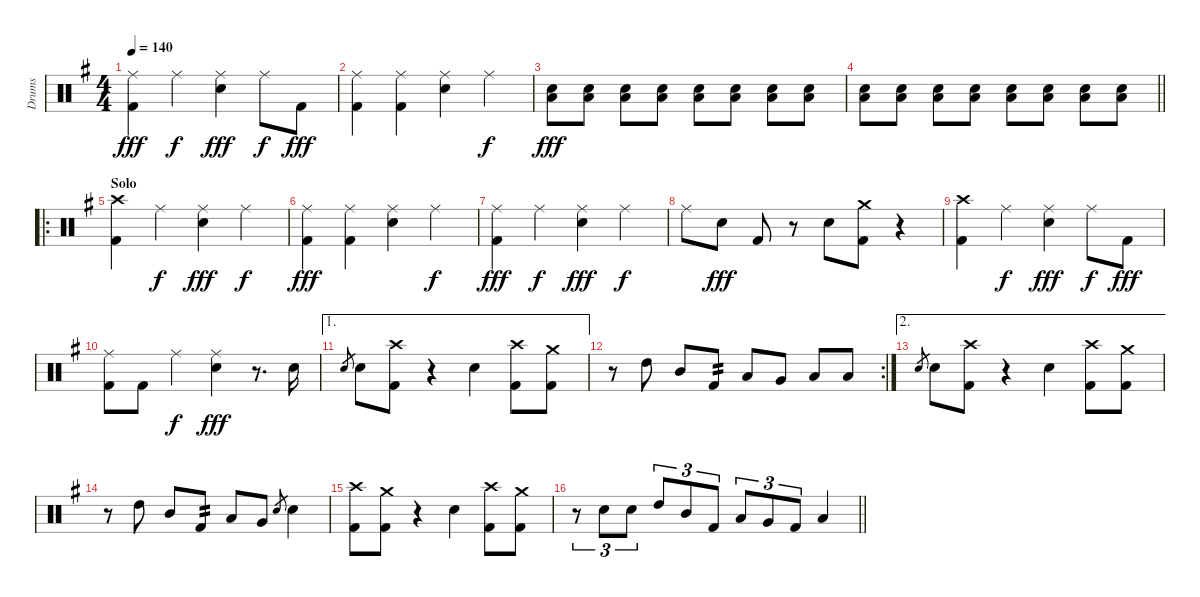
\track ("Drums" "Drums") {instrument percussion}
\staff {score}
\articulation defaults
\ts (4 4)
\tempo 140
\clef neutral
\ks eminor
("Ride (middle)" "Kick (hit) 2").4{dy fff} "Ride (middle)".4{dy f} ("Electric Snare (hit)" "Ride (middle)").4{dy fff} "Ride (middle)".8{dy f} "Kick (hit) 2".8{dy fff} |
("Ride (middle)" "Kick (hit) 2").4 ("Ride (middle)" "Kick (hit) 2").4 ("Electric Snare (hit)" "Ride (middle)").4 "Ride (middle)".4{dy f} |
("Electric Snare (hit)" "Low Floor Tom (hit)").8{dy fff volume 4} ("Electric Snare (hit)" "Low Floor Tom (hit)").8{volume 16} ("Electric Snare (hit)" "Low Floor Tom (hit)").8 ("Electric Snare (hit)" "Low Floor Tom (hit)").8 ("Electric Snare (hit)" "Low Floor Tom (hit)").8 ("Electric Snare (hit)" "Low Floor Tom (hit)").8 ("Electric Snare (hit)" "Low Floor Tom (hit)").8 ("Electric Snare (hit)" "Low Floor Tom (hit)").8 |
\barLineRight lightlight
("Electric Snare (hit)" "Low Floor Tom (hit)").8 ("Electric Snare (hit)" "Low Floor Tom (hit)").8 ("Electric Snare (hit)" "Low Floor Tom (hit)").8 ("Electric Snare (hit)" "Low Floor Tom (hit)").8 ("Electric Snare (hit)" "Low Floor Tom (hit)").8 ("Electric Snare (hit)" "Low Floor Tom (hit)").8 ("Electric Snare (hit)" "Low Floor Tom (hit)").8 ("Electric Snare (hit)" "Low Floor Tom (hit)").8 |
\ro
\section ("" "Solo")
("Crash high (hit)" "Kick (hit) 2").4 "Ride (middle)".4{dy f} ("Electric Snare (hit)" "Ride (middle)").4{dy fff} "Ride (middle)".4{dy f} |
("Ride (middle)" "Kick (hit) 2").4{dy fff} ("Ride (middle)" "Kick (hit) 2").4 ("Electric Snare (hit)" "Ride (middle)").4 "Ride (middle)".4{dy f} |
("Ride (middle)" "Kick (hit) 2").4{dy fff} "Ride (middle)".4{dy f} ("Electric Snare (hit)" "Ride (middle)").4{dy fff} "Ride (middle)".4{dy f} |
"Ride (middle)".8 "Electric Snare (hit)".8{dy fff} "Kick (hit) 2".8 r.8 "Electric Snare (hit)".8 ("Crash medium (hit)" "Kick (hit) 2").8 r.4 |
("Crash high (hit)" "Kick (hit) 2").4 "Ride (middle)".4{dy f} ("Electric Snare (hit)" "Ride (middle)").4{dy fff} "Ride (middle)".8{dy f} "Kick (hit) 2".8{dy fff} |
("Ride (middle)" "Kick (hit) 2").8 "Kick (hit) 2".8 "Ride (middle)".4{dy f} ("Electric Snare (hit)" "Ride (middle)").4{dy fff} r.8{d} "Electric Snare (hit)".16 |
\ae 1 "Electric Snare (hit)".8{gr} "Electric Snare (hit)".8
("Crash high (hit)" "Kick (hit) 2").8 r.4 "Electric Snare (hit)".4 ("Crash high (hit)" "Kick (hit) 2").8 ("Crash medium (hit)" "Kick (hit) 2").8 |
\rc 2
r.8 "High Tom (hit)".8 "Mid Tom (hit)".8 "Kick (hit) 2".8{tp 2} "Low Tom (hit)".8 "Very Low Tom (hit)".8 "Low Floor Tom (hit)".8 "Low Floor Tom (hit)".8 |
\ae 2 "Electric Snare (hit)".8{gr} "Electric Snare (hit)".8
("Crash high (hit)" "Kick (hit) 2").8 r.4 "Electric Snare (hit)".4 ("Crash high (hit)" "Kick (hit) 2").8 ("Crash medium (hit)" "Kick (hit) 2").8 |
r.8 "High Tom (hit)".8 "Mid Tom (hit)".8 "Kick (hit) 2".8{tp 2} "Low Tom (hit)".8 "Very Low Tom (hit)".8 "Electric Snare (hit)".8{gr} "Electric Snare (hit)".4 |
("Crash high (hit)" "Kick (hit) 2").8 ("Crash medium (hit)" "Kick (hit) 2").8 r.4 "Electric Snare (hit)".4 ("Crash high (hit)" "Kick (hit) 2").8 ("Crash medium (hit)" "Kick (hit) 2").8 |
\barLineRight lightlight
r.8{tu (3 2)} "Electric Snare (hit)".8{tu (3 2)} "Electric Snare (hit)".8{tu (3 2)} "High Tom (hit)".8{tu (3 2)} "Mid Tom (hit)".8{tu (3 2)} "Kick (hit) 2".8{tu (3 2)} "Low Tom (hit)".8{tu (3 2)} "Very Low Tom (hit)".8{tu (3 2)} "Kick (hit) 2".8{tu (3 2)} "Low Floor Tom (hit)".4
